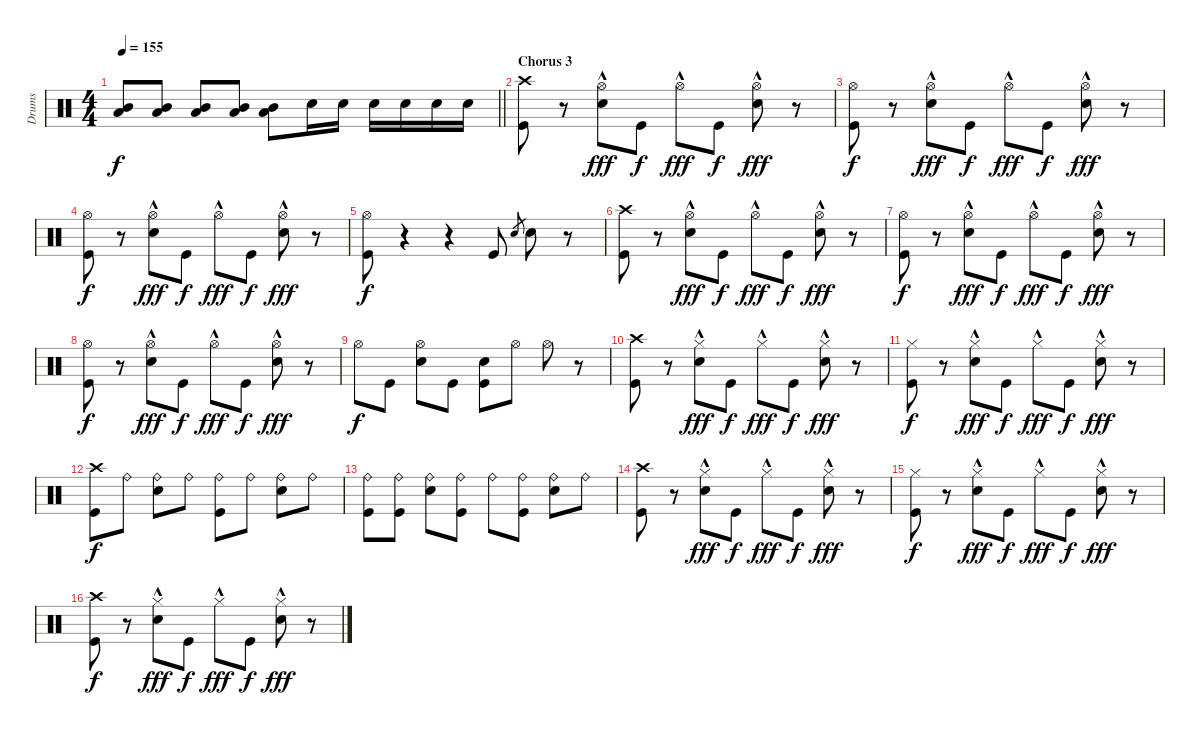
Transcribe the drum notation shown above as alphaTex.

\track ("Drums" "Drums") {instrument percussion}
\staff {score}
\articulation defaults
\ts (4 4)
\tempo 155
\clef neutral
\barLineRight lightlight
\ks c
("Mid Tom (hit)" "Low Floor Tom (hit)").8{dy f} ("Mid Tom (hit)" "Low Floor Tom (hit)").8 ("Mid Tom (hit)" "Low Floor Tom (hit)").8 ("Mid Tom (hit)" "Low Floor Tom (hit)").8 ("Mid Tom (hit)" "Low Floor Tom (hit)").8 "Snare (hit) 2".16 "Snare (hit) 2".16 "Snare (hit) 2".16 "Snare (hit) 2".16 "Snare (hit) 2".16 "Snare (hit) 2".16 |
\section ("" "Chorus 3")
("Crash high (hit)" "Kick (hit)").8 r.8 ("Hi-Hat (open)"{hac} "Snare (hit) 2").8{dy fff} "Kick (hit)".8{dy f} "Hi-Hat (open)"{hac}.8{dy fff} "Kick (hit)".8{dy f} ("Hi-Hat (open)"{hac} "Snare (hit) 2").8{dy fff} r.8 |
("Hi-Hat (open)" "Kick (hit)").8{dy f} r.8 ("Hi-Hat (open)"{hac} "Snare (hit) 2").8{dy fff} "Kick (hit)".8{dy f} "Hi-Hat (open)"{hac}.8{dy fff} "Kick (hit)".8{dy f} ("Hi-Hat (open)"{hac} "Snare (hit) 2").8{dy fff} r.8 |
("Hi-Hat (open)" "Kick (hit)").8{dy f} r.8 ("Hi-Hat (open)"{hac} "Snare (hit) 2").8{dy fff} "Kick (hit)".8{dy f} "Hi-Hat (open)"{hac}.8{dy fff} "Kick (hit)".8{dy f} ("Hi-Hat (open)"{hac} "Snare (hit) 2").8{dy fff} r.8 |
("Hi-Hat (open)" "Kick (hit)").8{dy f} r.4 r.4 "Kick (hit)".8 "Snare (hit) 2".8{gr} "Snare (hit) 2".8 r.8 |
("Crash high (hit)" "Kick (hit)").8 r.8 ("Hi-Hat (open)"{hac} "Snare (hit) 2").8{dy fff} "Kick (hit)".8{dy f} "Hi-Hat (open)"{hac}.8{dy fff} "Kick (hit)".8{dy f} ("Hi-Hat (open)"{hac} "Snare (hit) 2").8{dy fff} r.8 |
("Hi-Hat (open)" "Kick (hit)").8{dy f} r.8 ("Hi-Hat (open)"{hac} "Snare (hit) 2").8{dy fff} "Kick (hit)".8{dy f} "Hi-Hat (open)"{hac}.8{dy fff} "Kick (hit)".8{dy f} ("Hi-Hat (open)"{hac} "Snare (hit) 2").8{dy fff} r.8 |
("Hi-Hat (open)" "Kick (hit)").8{dy f} r.8 ("Hi-Hat (open)"{hac} "Snare (hit) 2").8{dy fff} "Kick (hit)".8{dy f} "Hi-Hat (open)"{hac}.8{dy fff} "Kick (hit)".8{dy f} ("Hi-Hat (open)"{hac} "Snare (hit) 2").8{dy fff} r.8 |
"Hi-Hat (open)".8{dy f} "Kick (hit)".8 ("Hi-Hat (open)" "Snare (hit) 2").8 "Kick (hit)".8 ("Snare (hit) 2" "Kick (hit)").8 "Hi-Hat (open)".8 "Hi-Hat (open)".8 r.8 |
("Crash high (hit)" "Kick (hit)").8 r.8 ("Hi-Hat (closed)"{hac} "Snare (hit) 2").8{dy fff} "Kick (hit)".8{dy f} "Hi-Hat (closed)"{hac}.8{dy fff} "Kick (hit)".8{dy f} ("Hi-Hat (closed)"{hac} "Snare (hit) 2").8{dy fff} r.8 |
("Hi-Hat (closed)" "Kick (hit)").8{dy f} r.8 ("Hi-Hat (closed)"{hac} "Snare (hit) 2").8{dy fff} "Kick (hit)".8{dy f} "Hi-Hat (closed)"{hac}.8{dy fff} "Kick (hit)".8{dy f} ("Hi-Hat (closed)"{hac} "Snare (hit) 2").8{dy fff} r.8 |
("Crash high (hit)" "Kick (hit)").8{dy f} "Ride (bell)".8 ("Ride (bell)" "Snare (hit) 2").8 "Ride (bell)".8 ("Ride (bell)" "Kick (hit)").8 "Ride (bell)".8 ("Ride (bell)" "Snare (hit) 2").8 "Ride (bell)".8 |
("Ride (bell)" "Kick (hit)").8 ("Ride (bell)" "Kick (hit)").8 ("Ride (bell)" "Snare (hit) 2").8 ("Ride (bell)" "Kick (hit)").8 "Ride (bell)".8 ("Ride (bell)" "Kick (hit)").8 ("Ride (bell)" "Snare (hit) 2").8 "Ride (bell)".8 |
("Crash high (hit)" "Kick (hit)").8 r.8 ("Hi-Hat (closed)"{hac} "Snare (hit) 2").8{dy fff} "Kick (hit)".8{dy f} "Hi-Hat (closed)"{hac}.8{dy fff} "Kick (hit)".8{dy f} ("Hi-Hat (closed)"{hac} "Snare (hit) 2").8{dy fff} r.8 |
("Hi-Hat (closed)" "Kick (hit)").8{dy f} r.8 ("Hi-Hat (closed)"{hac} "Snare (hit) 2").8{dy fff} "Kick (hit)".8{dy f} "Hi-Hat (closed)"{hac}.8{dy fff} "Kick (hit)".8{dy f} ("Hi-Hat (closed)"{hac} "Snare (hit) 2").8{dy fff} r.8 |
("Crash high (hit)" "Kick (hit)").8{dy f} r.8 ("Hi-Hat (closed)"{hac} "Snare (hit) 2").8{dy fff} "Kick (hit)".8{dy f} "Hi-Hat (closed)"{hac}.8{dy fff} "Kick (hit)".8{dy f} ("Hi-Hat (closed)"{hac} "Snare (hit) 2").8{dy fff} r.8
